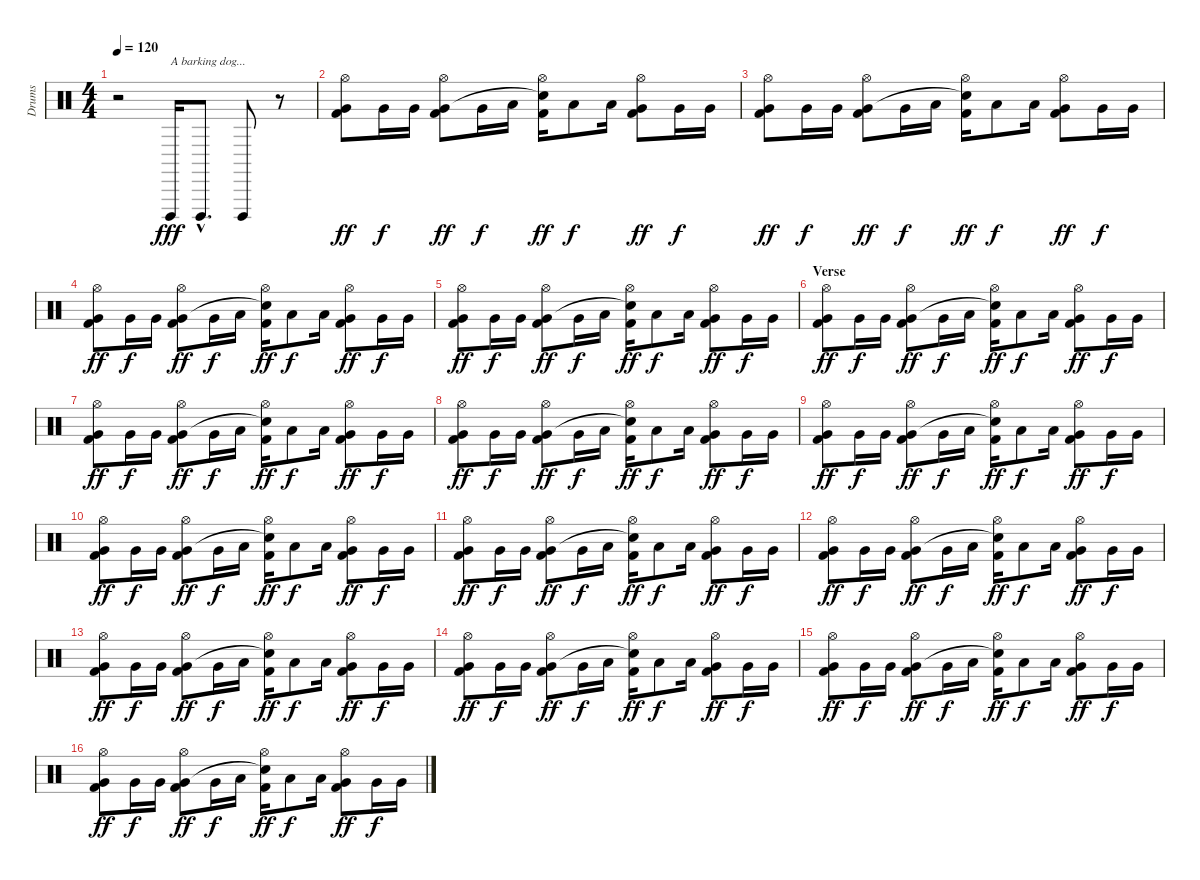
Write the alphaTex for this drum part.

\track ("Drums" "Drums") {instrument percussion}
\staff {score}
\articulation defaults
\ts (4 4)
\tempo 120
\clef neutral
\ks c
r.2{dy fff} "Cuica (open)".16{txt "A barking dog..." balance 0} "Cuica (open)"{hac}.8{d} "Cuica (open)".8 r.8 |
("Hi-Hat (open)" "Very Low Tom (hit)" "Kick (hit) 2").8{dy ff balance 5} "Very Low Tom (hit)".16{dy f} "Very Low Tom (hit)".16 ("Hi-Hat (open)" "Very Low Tom (hit)" "Kick (hit) 2").8{dy ff} "Very Low Tom (hit)".16{dy f} "Low Tom (hit)".16 ("Hi-Hat (open)" "Snare (hit)"{t} "Kick (hit) 2").16{dy ff} "Low Tom (hit)".8{dy f} "Low Tom (hit)".16 ("Hi-Hat (open)" "Very Low Tom (hit)" "Kick (hit) 2").8{dy ff} "Very Low Tom (hit)".16{dy f} "Very Low Tom (hit)".16 |
("Hi-Hat (open)" "Very Low Tom (hit)" "Kick (hit) 2").8{dy ff} "Very Low Tom (hit)".16{dy f} "Very Low Tom (hit)".16 ("Hi-Hat (open)" "Very Low Tom (hit)" "Kick (hit) 2").8{dy ff} "Very Low Tom (hit)".16{dy f} "Low Tom (hit)".16 ("Hi-Hat (open)" "Snare (hit)"{t} "Kick (hit) 2").16{dy ff} "Low Tom (hit)".8{dy f} "Low Tom (hit)".16 ("Hi-Hat (open)" "Very Low Tom (hit)" "Kick (hit) 2").8{dy ff} "Very Low Tom (hit)".16{dy f} "Very Low Tom (hit)".16 |
("Hi-Hat (open)" "Very Low Tom (hit)" "Kick (hit) 2").8{dy ff} "Very Low Tom (hit)".16{dy f} "Very Low Tom (hit)".16 ("Hi-Hat (open)" "Very Low Tom (hit)" "Kick (hit) 2").8{dy ff} "Very Low Tom (hit)".16{dy f} "Low Tom (hit)".16 ("Hi-Hat (open)" "Snare (hit)"{t} "Kick (hit) 2").16{dy ff} "Low Tom (hit)".8{dy f} "Low Tom (hit)".16 ("Hi-Hat (open)" "Very Low Tom (hit)" "Kick (hit) 2").8{dy ff} "Very Low Tom (hit)".16{dy f} "Very Low Tom (hit)".16 |
("Hi-Hat (open)" "Very Low Tom (hit)" "Kick (hit) 2").8{dy ff} "Very Low Tom (hit)".16{dy f} "Very Low Tom (hit)".16 ("Hi-Hat (open)" "Very Low Tom (hit)" "Kick (hit) 2").8{dy ff} "Very Low Tom (hit)".16{dy f} "Low Tom (hit)".16 ("Hi-Hat (open)" "Snare (hit)"{t} "Kick (hit) 2").16{dy ff} "Low Tom (hit)".8{dy f} "Low Tom (hit)".16 ("Hi-Hat (open)" "Very Low Tom (hit)" "Kick (hit) 2").8{dy ff} "Very Low Tom (hit)".16{dy f} "Very Low Tom (hit)".16 |
\section ("" "Verse")
("Hi-Hat (open)" "Very Low Tom (hit)" "Kick (hit) 2").8{dy ff} "Very Low Tom (hit)".16{dy f} "Very Low Tom (hit)".16 ("Hi-Hat (open)" "Very Low Tom (hit)" "Kick (hit) 2").8{dy ff} "Very Low Tom (hit)".16{dy f} "Low Tom (hit)".16 ("Hi-Hat (open)" "Snare (hit)"{t} "Kick (hit) 2").16{dy ff} "Low Tom (hit)".8{dy f} "Low Tom (hit)".16 ("Hi-Hat (open)" "Very Low Tom (hit)" "Kick (hit) 2").8{dy ff} "Very Low Tom (hit)".16{dy f} "Very Low Tom (hit)".16 |
("Hi-Hat (open)" "Very Low Tom (hit)" "Kick (hit) 2").8{dy ff} "Very Low Tom (hit)".16{dy f} "Very Low Tom (hit)".16 ("Hi-Hat (open)" "Very Low Tom (hit)" "Kick (hit) 2").8{dy ff} "Very Low Tom (hit)".16{dy f} "Low Tom (hit)".16 ("Hi-Hat (open)" "Snare (hit)"{t} "Kick (hit) 2").16{dy ff} "Low Tom (hit)".8{dy f} "Low Tom (hit)".16 ("Hi-Hat (open)" "Very Low Tom (hit)" "Kick (hit) 2").8{dy ff} "Very Low Tom (hit)".16{dy f} "Very Low Tom (hit)".16 |
("Hi-Hat (open)" "Very Low Tom (hit)" "Kick (hit) 2").8{dy ff} "Very Low Tom (hit)".16{dy f} "Very Low Tom (hit)".16 ("Hi-Hat (open)" "Very Low Tom (hit)" "Kick (hit) 2").8{dy ff} "Very Low Tom (hit)".16{dy f} "Low Tom (hit)".16 ("Hi-Hat (open)" "Snare (hit)"{t} "Kick (hit) 2").16{dy ff} "Low Tom (hit)".8{dy f} "Low Tom (hit)".16 ("Hi-Hat (open)" "Very Low Tom (hit)" "Kick (hit) 2").8{dy ff} "Very Low Tom (hit)".16{dy f} "Very Low Tom (hit)".16 |
("Hi-Hat (open)" "Very Low Tom (hit)" "Kick (hit) 2").8{dy ff} "Very Low Tom (hit)".16{dy f} "Very Low Tom (hit)".16 ("Hi-Hat (open)" "Very Low Tom (hit)" "Kick (hit) 2").8{dy ff} "Very Low Tom (hit)".16{dy f} "Low Tom (hit)".16 ("Hi-Hat (open)" "Snare (hit)"{t} "Kick (hit) 2").16{dy ff} "Low Tom (hit)".8{dy f} "Low Tom (hit)".16 ("Hi-Hat (open)" "Very Low Tom (hit)" "Kick (hit) 2").8{dy ff} "Very Low Tom (hit)".16{dy f} "Very Low Tom (hit)".16 |
("Hi-Hat (open)" "Very Low Tom (hit)" "Kick (hit) 2").8{dy ff} "Very Low Tom (hit)".16{dy f} "Very Low Tom (hit)".16 ("Hi-Hat (open)" "Very Low Tom (hit)" "Kick (hit) 2").8{dy ff} "Very Low Tom (hit)".16{dy f} "Low Tom (hit)".16 ("Hi-Hat (open)" "Snare (hit)"{t} "Kick (hit) 2").16{dy ff} "Low Tom (hit)".8{dy f} "Low Tom (hit)".16 ("Hi-Hat (open)" "Very Low Tom (hit)" "Kick (hit) 2").8{dy ff} "Very Low Tom (hit)".16{dy f} "Very Low Tom (hit)".16 |
("Hi-Hat (open)" "Very Low Tom (hit)" "Kick (hit) 2").8{dy ff} "Very Low Tom (hit)".16{dy f} "Very Low Tom (hit)".16 ("Hi-Hat (open)" "Very Low Tom (hit)" "Kick (hit) 2").8{dy ff} "Very Low Tom (hit)".16{dy f} "Low Tom (hit)".16 ("Hi-Hat (open)" "Snare (hit)"{t} "Kick (hit) 2").16{dy ff} "Low Tom (hit)".8{dy f} "Low Tom (hit)".16 ("Hi-Hat (open)" "Very Low Tom (hit)" "Kick (hit) 2").8{dy ff} "Very Low Tom (hit)".16{dy f} "Very Low Tom (hit)".16 |
("Hi-Hat (open)" "Very Low Tom (hit)" "Kick (hit) 2").8{dy ff} "Very Low Tom (hit)".16{dy f} "Very Low Tom (hit)".16 ("Hi-Hat (open)" "Very Low Tom (hit)" "Kick (hit) 2").8{dy ff} "Very Low Tom (hit)".16{dy f} "Low Tom (hit)".16 ("Hi-Hat (open)" "Snare (hit)"{t} "Kick (hit) 2").16{dy ff} "Low Tom (hit)".8{dy f} "Low Tom (hit)".16 ("Hi-Hat (open)" "Very Low Tom (hit)" "Kick (hit) 2").8{dy ff} "Very Low Tom (hit)".16{dy f} "Very Low Tom (hit)".16 |
("Hi-Hat (open)" "Very Low Tom (hit)" "Kick (hit) 2").8{dy ff} "Very Low Tom (hit)".16{dy f} "Very Low Tom (hit)".16 ("Hi-Hat (open)" "Very Low Tom (hit)" "Kick (hit) 2").8{dy ff} "Very Low Tom (hit)".16{dy f} "Low Tom (hit)".16 ("Hi-Hat (open)" "Snare (hit)"{t} "Kick (hit) 2").16{dy ff} "Low Tom (hit)".8{dy f} "Low Tom (hit)".16 ("Hi-Hat (open)" "Very Low Tom (hit)" "Kick (hit) 2").8{dy ff} "Very Low Tom (hit)".16{dy f} "Very Low Tom (hit)".16 |
("Hi-Hat (open)" "Very Low Tom (hit)" "Kick (hit) 2").8{dy ff} "Very Low Tom (hit)".16{dy f} "Very Low Tom (hit)".16 ("Hi-Hat (open)" "Very Low Tom (hit)" "Kick (hit) 2").8{dy ff} "Very Low Tom (hit)".16{dy f} "Low Tom (hit)".16 ("Hi-Hat (open)" "Snare (hit)"{t} "Kick (hit) 2").16{dy ff} "Low Tom (hit)".8{dy f} "Low Tom (hit)".16 ("Hi-Hat (open)" "Very Low Tom (hit)" "Kick (hit) 2").8{dy ff} "Very Low Tom (hit)".16{dy f} "Very Low Tom (hit)".16 |
("Hi-Hat (open)" "Very Low Tom (hit)" "Kick (hit) 2").8{dy ff} "Very Low Tom (hit)".16{dy f} "Very Low Tom (hit)".16 ("Hi-Hat (open)" "Very Low Tom (hit)" "Kick (hit) 2").8{dy ff} "Very Low Tom (hit)".16{dy f} "Low Tom (hit)".16 ("Hi-Hat (open)" "Snare (hit)"{t} "Kick (hit) 2").16{dy ff} "Low Tom (hit)".8{dy f} "Low Tom (hit)".16 ("Hi-Hat (open)" "Very Low Tom (hit)" "Kick (hit) 2").8{dy ff} "Very Low Tom (hit)".16{dy f} "Very Low Tom (hit)".16 |
("Hi-Hat (open)" "Very Low Tom (hit)" "Kick (hit) 2").8{dy ff} "Very Low Tom (hit)".16{dy f} "Very Low Tom (hit)".16 ("Hi-Hat (open)" "Very Low Tom (hit)" "Kick (hit) 2").8{dy ff} "Very Low Tom (hit)".16{dy f} "Low Tom (hit)".16 ("Hi-Hat (open)" "Snare (hit)"{t} "Kick (hit) 2").16{dy ff} "Low Tom (hit)".8{dy f} "Low Tom (hit)".16 ("Hi-Hat (open)" "Very Low Tom (hit)" "Kick (hit) 2").8{dy ff} "Very Low Tom (hit)".16{dy f} "Very Low Tom (hit)".16
